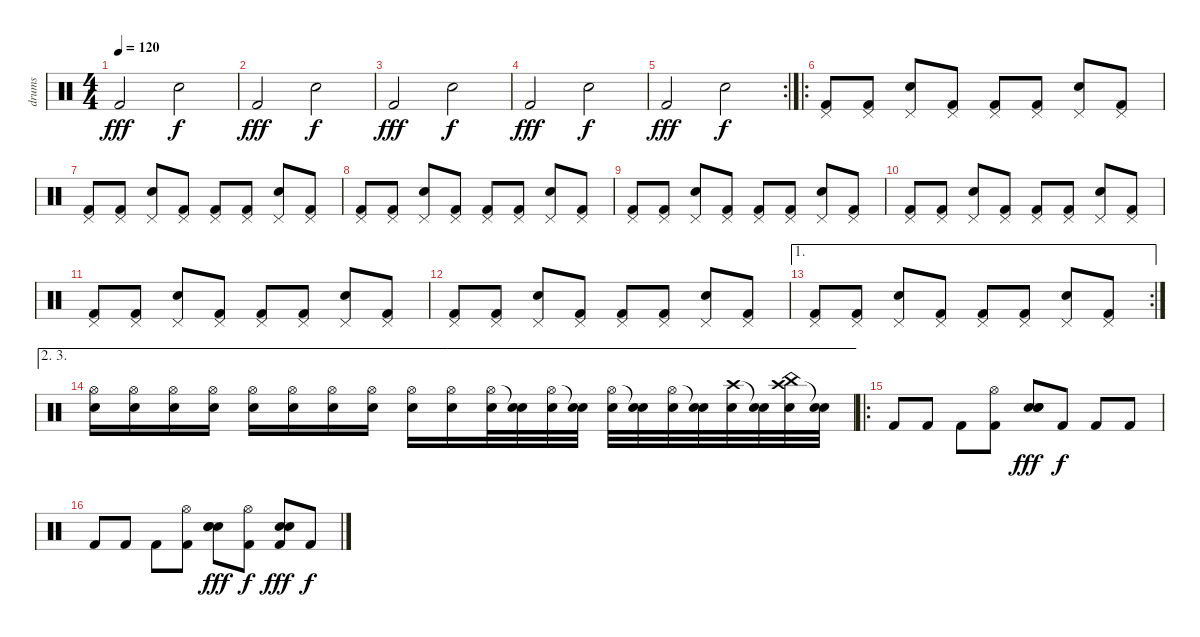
\track ("drums" "drums") {instrument percussion}
\staff {score}
\articulation defaults
\ts (4 4)
\tempo 120
\clef neutral
\ks c "Kick (hit) 2".2{dy fff} "Electric Snare (hit)".2{dy f}
|
"Kick (hit) 2".2{dy fff} "Electric Snare (hit)".2{dy f} |
"Kick (hit) 2".2{dy fff} "Electric Snare (hit)".2{dy f} |
"Kick (hit) 2".2{dy fff} "Electric Snare (hit)".2{dy f} |
\rc 2 "Kick (hit) 2".2{dy fff} "Electric Snare (hit)".2{dy f}
|
\ro
("Pedal Hi-Hat (hit)" "Kick (hit) 2").8 ("Pedal Hi-Hat (hit)" "Kick (hit) 2").8 ("Pedal Hi-Hat (hit)" "Electric Snare (hit)").8 ("Pedal Hi-Hat (hit)" "Kick (hit) 2").8 ("Pedal Hi-Hat (hit)" "Kick (hit) 2").8 ("Pedal Hi-Hat (hit)" "Kick (hit) 2").8 ("Pedal Hi-Hat (hit)" "Electric Snare (hit)").8 ("Pedal Hi-Hat (hit)" "Kick (hit) 2").8 |
("Pedal Hi-Hat (hit)" "Kick (hit) 2").8 ("Pedal Hi-Hat (hit)" "Kick (hit) 2").8 ("Pedal Hi-Hat (hit)" "Electric Snare (hit)").8 ("Pedal Hi-Hat (hit)" "Kick (hit) 2").8 ("Pedal Hi-Hat (hit)" "Kick (hit) 2").8 ("Pedal Hi-Hat (hit)" "Kick (hit) 2").8 ("Pedal Hi-Hat (hit)" "Electric Snare (hit)").8 ("Pedal Hi-Hat (hit)" "Kick (hit) 2").8 |
("Pedal Hi-Hat (hit)" "Kick (hit) 2").8 ("Pedal Hi-Hat (hit)" "Kick (hit) 2").8 ("Pedal Hi-Hat (hit)" "Electric Snare (hit)").8 ("Pedal Hi-Hat (hit)" "Kick (hit) 2").8 ("Pedal Hi-Hat (hit)" "Kick (hit) 2").8 ("Pedal Hi-Hat (hit)" "Kick (hit) 2").8 ("Pedal Hi-Hat (hit)" "Electric Snare (hit)").8 ("Pedal Hi-Hat (hit)" "Kick (hit) 2").8 |
("Pedal Hi-Hat (hit)" "Kick (hit) 2").8 ("Pedal Hi-Hat (hit)" "Kick (hit) 2").8 ("Pedal Hi-Hat (hit)" "Electric Snare (hit)").8 ("Pedal Hi-Hat (hit)" "Kick (hit) 2").8 ("Pedal Hi-Hat (hit)" "Kick (hit) 2").8 ("Pedal Hi-Hat (hit)" "Kick (hit) 2").8 ("Pedal Hi-Hat (hit)" "Electric Snare (hit)").8 ("Pedal Hi-Hat (hit)" "Kick (hit) 2").8 |
("Pedal Hi-Hat (hit)" "Kick (hit) 2").8 ("Pedal Hi-Hat (hit)" "Kick (hit) 2").8 ("Pedal Hi-Hat (hit)" "Electric Snare (hit)").8 ("Pedal Hi-Hat (hit)" "Kick (hit) 2").8 ("Pedal Hi-Hat (hit)" "Kick (hit) 2").8 ("Pedal Hi-Hat (hit)" "Kick (hit) 2").8 ("Pedal Hi-Hat (hit)" "Electric Snare (hit)").8 ("Pedal Hi-Hat (hit)" "Kick (hit) 2").8 |
("Pedal Hi-Hat (hit)" "Kick (hit) 2").8 ("Pedal Hi-Hat (hit)" "Kick (hit) 2").8 ("Pedal Hi-Hat (hit)" "Electric Snare (hit)").8 ("Pedal Hi-Hat (hit)" "Kick (hit) 2").8 ("Pedal Hi-Hat (hit)" "Kick (hit) 2").8 ("Pedal Hi-Hat (hit)" "Kick (hit) 2").8 ("Pedal Hi-Hat (hit)" "Electric Snare (hit)").8 ("Pedal Hi-Hat (hit)" "Kick (hit) 2").8 |
("Pedal Hi-Hat (hit)" "Kick (hit) 2").8 ("Pedal Hi-Hat (hit)" "Kick (hit) 2").8 ("Pedal Hi-Hat (hit)" "Electric Snare (hit)").8 ("Pedal Hi-Hat (hit)" "Kick (hit) 2").8 ("Pedal Hi-Hat (hit)" "Kick (hit) 2").8 ("Pedal Hi-Hat (hit)" "Kick (hit) 2").8 ("Pedal Hi-Hat (hit)" "Electric Snare (hit)").8 ("Pedal Hi-Hat (hit)" "Kick (hit) 2").8 |
\ae 1
\rc 2
("Pedal Hi-Hat (hit)" "Kick (hit) 2").8 ("Pedal Hi-Hat (hit)" "Kick (hit) 2").8 ("Pedal Hi-Hat (hit)" "Electric Snare (hit)").8 ("Pedal Hi-Hat (hit)" "Kick (hit) 2").8 ("Pedal Hi-Hat (hit)" "Kick (hit) 2").8 ("Pedal Hi-Hat (hit)" "Kick (hit) 2").8 ("Pedal Hi-Hat (hit)" "Electric Snare (hit)").8 ("Pedal Hi-Hat (hit)" "Kick (hit) 2").8 |
\ae (2 3)
("Hi-Hat (open)" "Electric Snare (hit)").16 ("Hi-Hat (open)" "Electric Snare (hit)").16 ("Hi-Hat (open)" "Electric Snare (hit)").16 ("Hi-Hat (open)" "Electric Snare (hit)").16 ("Hi-Hat (open)" "Electric Snare (hit)").16 ("Hi-Hat (open)" "Electric Snare (hit)").16 ("Hi-Hat (open)" "Electric Snare (hit)").16 ("Hi-Hat (open)" "Electric Snare (hit)").16 ("Hi-Hat (open)" "Electric Snare (hit)").16 ("Hi-Hat (open)" "Electric Snare (hit)").16 ("Hi-Hat (open)" "Electric Snare (hit)").32 ("Snare (hit)"{t} "Electric Snare (hit)").32 ("Hi-Hat (open)" "Electric Snare (hit)").32 ("Snare (hit)"{t} "Electric Snare (hit)").32 ("Hi-Hat (open)" "Electric Snare (hit)").32 ("Snare (hit)"{t} "Electric Snare (hit)").32 ("Hi-Hat (open)" "Electric Snare (hit)").32 ("Snare (hit)"{t} "Electric Snare (hit)").32 ("Crash high (hit)" "Electric Snare (hit)").32 ("Snare (hit)"{t} "Electric Snare (hit)").32 ("Crash high (hit)" "China (hit)" "Electric Snare (hit)").32 ("Snare (hit)"{t} "Electric Snare (hit)").32 |
\ro "Kick (hit) 2".8 "Kick (hit) 2".8 "Kick (hit) 2".8
("Hi-Hat (open)" "Kick (hit) 2").8 ("Snare (hit) 2" "Electric Snare (hit)" "Snare (hit) 2").8{dy fff} "Kick (hit) 2".8{dy f} "Kick (hit) 2".8 "Kick (hit) 2".8 |
"Kick (hit) 2".8 "Kick (hit) 2".8 "Kick (hit) 2".8 ("Hi-Hat (open)" "Kick (hit) 2").8 ("Snare (hit) 2" "Electric Snare (hit)" "Snare (hit) 2").8{dy fff} ("Hi-Hat (open)" "Kick (hit) 2").8{dy f} ("Snare (hit) 2" "Electric Snare (hit)" "Kick (hit) 2").8{dy fff} "Kick (hit) 2".8{dy f}
